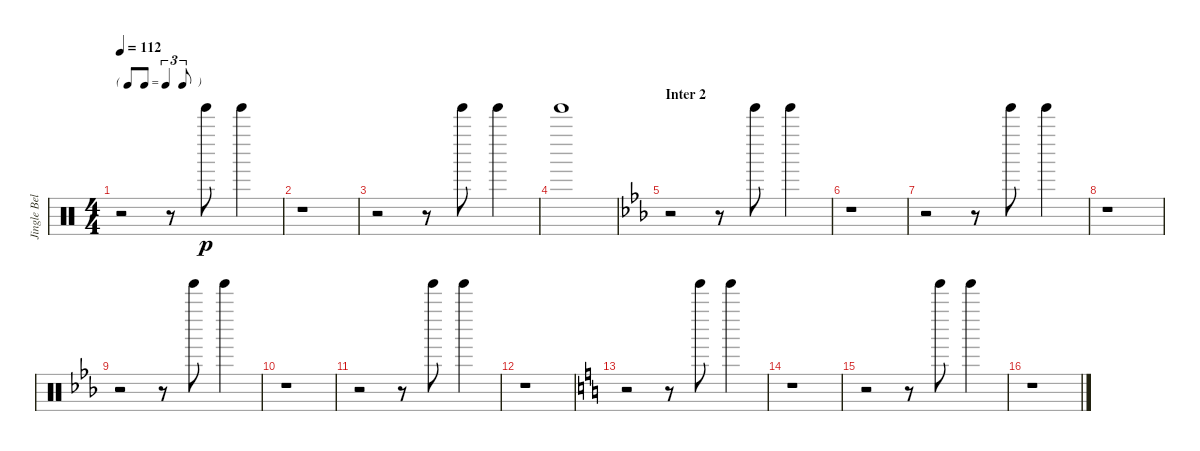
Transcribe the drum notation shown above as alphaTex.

\track ("Jingle Bell" "Jingle Bel") {instrument percussion}
\staff {score}
\articulation defaults
\ts (4 4)
\tf triplet8th
\tempo 112
\clef neutral
\ks c
r.2{dy p} r.8 "Tinkle Bell (hit)".8 "Tinkle Bell (hit)".4 |
r.1 |
r.2 r.8 "Tinkle Bell (hit)".8 "Tinkle Bell (hit)".4 |
"Tinkle Bell (hit)".1 |
\section ("" "Inter 2")
\ks eb
r.2 r.8 "Tinkle Bell (hit)".8 "Tinkle Bell (hit)".4 |
r.1 |
r.2 r.8 "Tinkle Bell (hit)".8 "Tinkle Bell (hit)".4 |
r.1 |
r.2 r.8 "Tinkle Bell (hit)".8 "Tinkle Bell (hit)".4 |
r.1 |
r.2 r.8 "Tinkle Bell (hit)".8 "Tinkle Bell (hit)".4 |
r.1 |
\ks c
r.2 r.8 "Tinkle Bell (hit)".8 "Tinkle Bell (hit)".4 |
r.1 |
r.2 r.8 "Tinkle Bell (hit)".8 "Tinkle Bell (hit)".4 |
r.1
